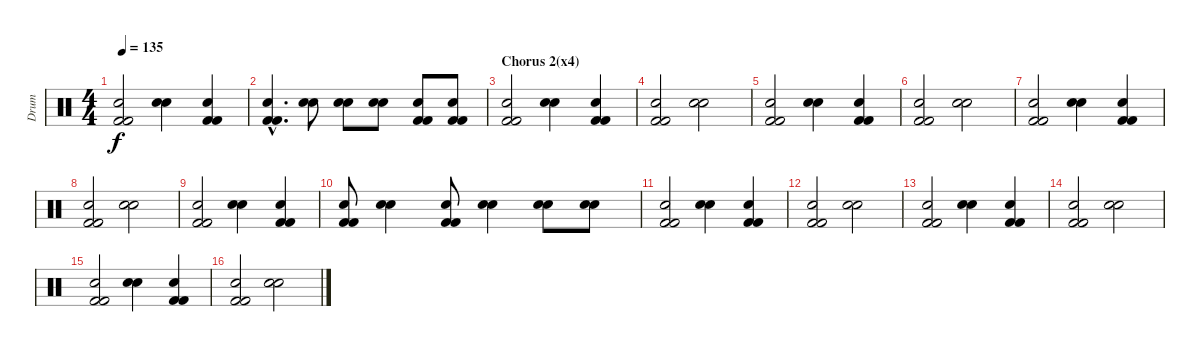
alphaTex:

\track ("Drum" "Drum") {instrument percussion}
\staff {score}
\articulation defaults
\ts (4 4)
\tempo 135
\clef neutral
\ks c
("Electric Snare (hit)" "Kick (hit) 2" "Kick (hit) 2").2{dy f} ("Electric Snare (hit)" "Electric Snare (hit)").4 ("Electric Snare (hit)" "Kick (hit) 2" "Kick (hit) 2").4 |
("Electric Snare (hit)"{hac} "Kick (hit) 2"{hac} "Kick (hit) 2"{hac}).4{d} ("Electric Snare (hit)" "Electric Snare (hit)").8 ("Electric Snare (hit)" "Electric Snare (hit)").8 ("Electric Snare (hit)" "Electric Snare (hit)").8 ("Electric Snare (hit)" "Kick (hit) 2" "Kick (hit) 2").8 ("Electric Snare (hit)" "Kick (hit) 2" "Kick (hit) 2").8 |
\section ("" "Chorus 2(x4)")
("Electric Snare (hit)" "Kick (hit) 2" "Kick (hit) 2").2 ("Electric Snare (hit)" "Electric Snare (hit)").4 ("Electric Snare (hit)" "Kick (hit) 2" "Kick (hit) 2").4 |
("Electric Snare (hit)" "Kick (hit) 2" "Kick (hit) 2").2 ("Electric Snare (hit)" "Electric Snare (hit)").2 |
("Electric Snare (hit)" "Kick (hit) 2" "Kick (hit) 2").2 ("Electric Snare (hit)" "Electric Snare (hit)").4 ("Electric Snare (hit)" "Kick (hit) 2" "Kick (hit) 2").4 |
("Electric Snare (hit)" "Kick (hit) 2" "Kick (hit) 2").2 ("Electric Snare (hit)" "Electric Snare (hit)").2 |
("Electric Snare (hit)" "Kick (hit) 2" "Kick (hit) 2").2 ("Electric Snare (hit)" "Electric Snare (hit)").4 ("Electric Snare (hit)" "Kick (hit) 2" "Kick (hit) 2").4 |
("Electric Snare (hit)" "Kick (hit) 2" "Kick (hit) 2").2 ("Electric Snare (hit)" "Electric Snare (hit)").2 |
("Electric Snare (hit)" "Kick (hit) 2" "Kick (hit) 2").2 ("Electric Snare (hit)" "Electric Snare (hit)").4 ("Electric Snare (hit)" "Kick (hit) 2" "Kick (hit) 2").4 |
("Electric Snare (hit)" "Kick (hit) 2" "Kick (hit) 2").8 ("Electric Snare (hit)" "Electric Snare (hit)").4 ("Electric Snare (hit)" "Kick (hit) 2" "Kick (hit) 2").8 ("Electric Snare (hit)" "Electric Snare (hit)").4 ("Electric Snare (hit)" "Electric Snare (hit)").8 ("Electric Snare (hit)" "Electric Snare (hit)").8 |
("Electric Snare (hit)" "Kick (hit) 2" "Kick (hit) 2").2 ("Electric Snare (hit)" "Electric Snare (hit)").4 ("Electric Snare (hit)" "Kick (hit) 2" "Kick (hit) 2").4 |
("Electric Snare (hit)" "Kick (hit) 2" "Kick (hit) 2").2 ("Electric Snare (hit)" "Electric Snare (hit)").2 |
("Electric Snare (hit)" "Kick (hit) 2" "Kick (hit) 2").2 ("Electric Snare (hit)" "Electric Snare (hit)").4 ("Electric Snare (hit)" "Kick (hit) 2" "Kick (hit) 2").4 |
("Electric Snare (hit)" "Kick (hit) 2" "Kick (hit) 2").2 ("Electric Snare (hit)" "Electric Snare (hit)").2 |
("Electric Snare (hit)" "Kick (hit) 2" "Kick (hit) 2").2 ("Electric Snare (hit)" "Electric Snare (hit)").4 ("Electric Snare (hit)" "Kick (hit) 2" "Kick (hit) 2").4 |
("Electric Snare (hit)" "Kick (hit) 2" "Kick (hit) 2").2 ("Electric Snare (hit)" "Electric Snare (hit)").2
